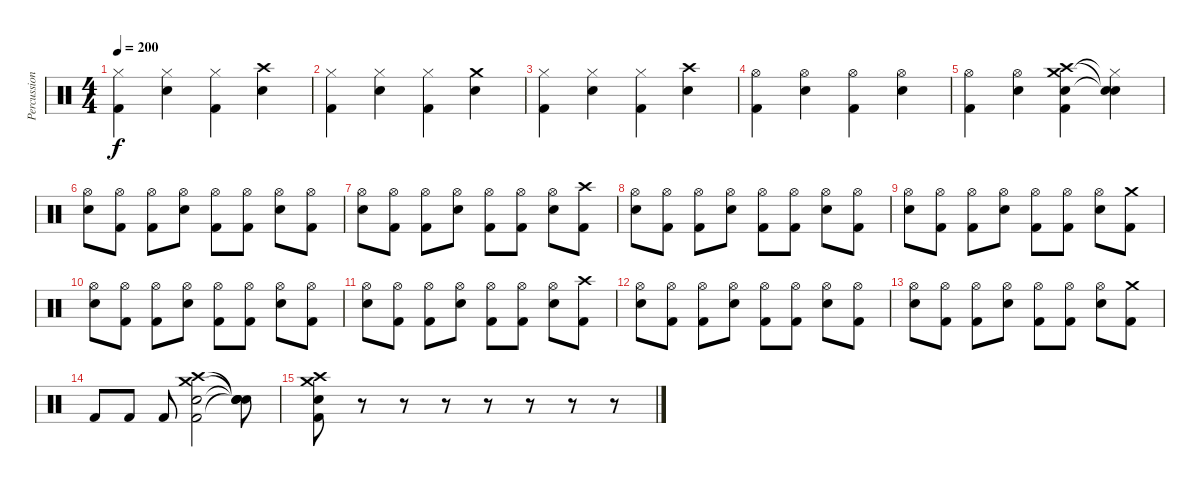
\track ("Percussion" "Percussion") {instrument percussion}
\staff {score}
\articulation defaults
\ts (4 4)
\tempo 200
\clef neutral
\ks c
("Hi-Hat (closed)" "Kick (hit) 2").4{dy f} ("Hi-Hat (closed)" "Electric Snare (hit)").4 ("Hi-Hat (closed)" "Kick (hit) 2").4 ("Crash high (hit)" "Electric Snare (hit)").4 |
("Hi-Hat (closed)" "Kick (hit) 2").4 ("Hi-Hat (closed)" "Electric Snare (hit)").4 ("Hi-Hat (closed)" "Kick (hit) 2").4 ("Crash medium (hit)" "Electric Snare (hit)").4 |
("Hi-Hat (closed)" "Kick (hit) 2").4 ("Hi-Hat (closed)" "Electric Snare (hit)").4 ("Hi-Hat (closed)" "Kick (hit) 2").4 ("Crash high (hit)" "Electric Snare (hit)").4 |
("Hi-Hat (open)" "Kick (hit) 2").4 ("Hi-Hat (open)" "Electric Snare (hit)").4 ("Hi-Hat (open)" "Kick (hit) 2").4 ("Hi-Hat (open)" "Electric Snare (hit)").4 |
("Hi-Hat (open)" "Kick (hit) 2").4 ("Hi-Hat (open)" "Electric Snare (hit)").4 ("Crash medium (hit)" "Crash high (hit)" "Electric Snare (hit)" "Kick (hit) 2").4 ("Hi-Hat (closed)"{t} "Electric Snare (hit)"{t} "Snare (hit)"{t}).4 |
("Hi-Hat (open)" "Electric Snare (hit)").8 ("Hi-Hat (open)" "Kick (hit) 2").8 ("Hi-Hat (open)" "Kick (hit) 2").8 ("Hi-Hat (open)" "Electric Snare (hit)").8 ("Hi-Hat (open)" "Kick (hit) 2").8 ("Hi-Hat (open)" "Kick (hit) 2").8 ("Hi-Hat (open)" "Electric Snare (hit)").8 ("Hi-Hat (open)" "Kick (hit) 2").8 |
("Hi-Hat (open)" "Electric Snare (hit)").8 ("Hi-Hat (open)" "Kick (hit) 2").8 ("Hi-Hat (open)" "Kick (hit) 2").8 ("Hi-Hat (open)" "Electric Snare (hit)").8 ("Hi-Hat (open)" "Kick (hit) 2").8 ("Hi-Hat (open)" "Kick (hit) 2").8 ("Hi-Hat (open)" "Electric Snare (hit)").8 ("Crash high (hit)" "Kick (hit) 2").8 |
("Hi-Hat (open)" "Electric Snare (hit)").8 ("Hi-Hat (open)" "Kick (hit) 2").8 ("Hi-Hat (open)" "Kick (hit) 2").8 ("Hi-Hat (open)" "Electric Snare (hit)").8 ("Hi-Hat (open)" "Kick (hit) 2").8 ("Hi-Hat (open)" "Kick (hit) 2").8 ("Hi-Hat (open)" "Electric Snare (hit)").8 ("Hi-Hat (open)" "Kick (hit) 2").8 |
("Hi-Hat (open)" "Electric Snare (hit)").8 ("Hi-Hat (open)" "Kick (hit) 2").8 ("Hi-Hat (open)" "Kick (hit) 2").8 ("Hi-Hat (open)" "Electric Snare (hit)").8 ("Hi-Hat (open)" "Kick (hit) 2").8 ("Hi-Hat (open)" "Kick (hit) 2").8 ("Hi-Hat (open)" "Electric Snare (hit)").8 ("Crash medium (hit)" "Kick (hit) 2").8 |
("Hi-Hat (open)" "Electric Snare (hit)").8 ("Hi-Hat (open)" "Kick (hit) 2").8 ("Hi-Hat (open)" "Kick (hit) 2").8 ("Hi-Hat (open)" "Electric Snare (hit)").8 ("Hi-Hat (open)" "Kick (hit) 2").8 ("Hi-Hat (open)" "Kick (hit) 2").8 ("Hi-Hat (open)" "Electric Snare (hit)").8 ("Hi-Hat (open)" "Kick (hit) 2").8 |
("Hi-Hat (open)" "Electric Snare (hit)").8 ("Hi-Hat (open)" "Kick (hit) 2").8 ("Hi-Hat (open)" "Kick (hit) 2").8 ("Hi-Hat (open)" "Electric Snare (hit)").8 ("Hi-Hat (open)" "Kick (hit) 2").8 ("Hi-Hat (open)" "Kick (hit) 2").8 ("Hi-Hat (open)" "Electric Snare (hit)").8 ("Crash high (hit)" "Kick (hit) 2").8 |
("Hi-Hat (open)" "Electric Snare (hit)").8 ("Hi-Hat (open)" "Kick (hit) 2").8 ("Hi-Hat (open)" "Kick (hit) 2").8 ("Hi-Hat (open)" "Electric Snare (hit)").8 ("Hi-Hat (open)" "Kick (hit) 2").8 ("Hi-Hat (open)" "Kick (hit) 2").8 ("Hi-Hat (open)" "Electric Snare (hit)").8 ("Hi-Hat (open)" "Kick (hit) 2").8 |
("Hi-Hat (open)" "Electric Snare (hit)").8 ("Hi-Hat (open)" "Kick (hit) 2").8 ("Hi-Hat (open)" "Kick (hit) 2").8 ("Hi-Hat (open)" "Electric Snare (hit)").8 ("Hi-Hat (open)" "Kick (hit) 2").8 ("Hi-Hat (open)" "Kick (hit) 2").8 ("Hi-Hat (open)" "Electric Snare (hit)").8 ("Crash medium (hit)" "Kick (hit) 2").8 |
"Kick (hit) 2".8 "Kick (hit) 2".8 "Kick (hit) 2".8 ("Crash medium (hit)" "Crash high (hit)" "Electric Snare (hit)" "Kick (hit) 2").2 ("Snare (hit)"{t} "Snare (hit)"{t} "Snare (hit)"{t} "Snare (hit)"{t}).8 |
("Crash medium (hit)" "Crash high (hit)" "Electric Snare (hit)" "Kick (hit) 2").8 r.8 r.8 r.8 r.8 r.8 r.8 r.8
